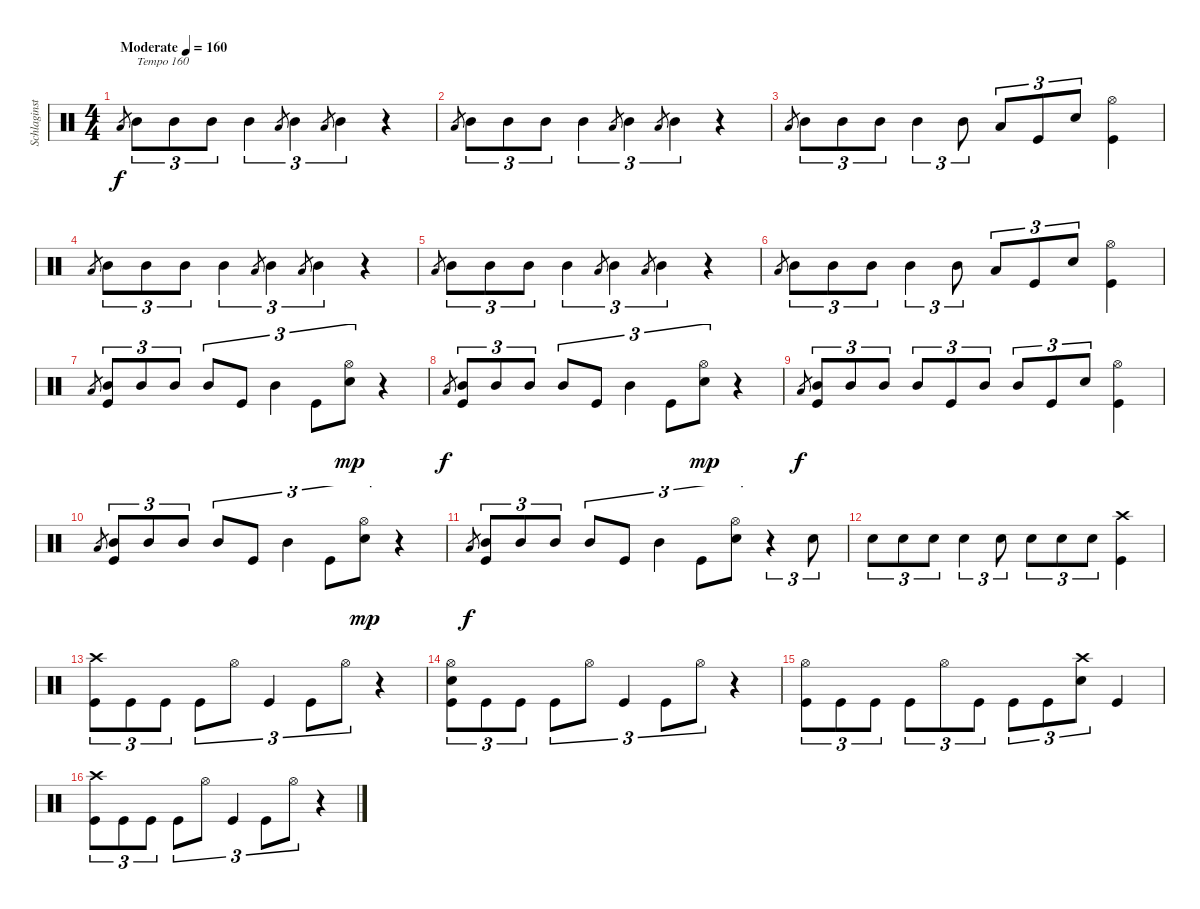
\track ("Schlaginstrumente - Auswahl" "Schlaginst") {instrument percussion}
\staff {score}
\articulation defaults
\ts (4 4)
\tempo (160 "Moderate")
\clef neutral
\ks c "Low Tom (hit)".8{gr dy f} "Mid Tom (hit)".8{tu (3 2) txt "Tempo 160"} "Mid Tom (hit)".8{tu (3 2)} "Mid Tom (hit)".8{tu (3 2)} "Mid Tom (hit)".4{tu (3 2)} "Low Tom (hit)".8{gr} "Mid Tom (hit)".4{tu (3 2)} "Low Tom (hit)".8{gr} "Mid Tom (hit)".4{tu (3 2)}
r.4 |
"Low Tom (hit)".8{gr} "Mid Tom (hit)".8{tu (3 2)} "Mid Tom (hit)".8{tu (3 2)} "Mid Tom (hit)".8{tu (3 2)} "Mid Tom (hit)".4{tu (3 2)} "Low Tom (hit)".8{gr} "Mid Tom (hit)".4{tu (3 2)} "Low Tom (hit)".8{gr} "Mid Tom (hit)".4{tu (3 2)} r.4 |
"Low Tom (hit)".8{gr} "Mid Tom (hit)".8{tu (3 2)} "Mid Tom (hit)".8{tu (3 2)} "Mid Tom (hit)".8{tu (3 2)} "Mid Tom (hit)".4{tu (3 2)} "Mid Tom (hit)".8{tu (3 2)} "Low Tom (hit)".8{tu (3 2)} "Kick (hit)".8{tu (3 2)} "Electric Snare (hit)".8{tu (3 2)} ("Hi-Hat (open)" "Kick (hit)").4 |
"Low Tom (hit)".8{gr} "Mid Tom (hit)".8{tu (3 2)} "Mid Tom (hit)".8{tu (3 2)} "Mid Tom (hit)".8{tu (3 2)} "Mid Tom (hit)".4{tu (3 2)} "Low Tom (hit)".8{gr} "Mid Tom (hit)".4{tu (3 2)} "Low Tom (hit)".8{gr} "Mid Tom (hit)".4{tu (3 2)} r.4 |
"Low Tom (hit)".8{gr} "Mid Tom (hit)".8{tu (3 2)} "Mid Tom (hit)".8{tu (3 2)} "Mid Tom (hit)".8{tu (3 2)} "Mid Tom (hit)".4{tu (3 2)} "Low Tom (hit)".8{gr} "Mid Tom (hit)".4{tu (3 2)} "Low Tom (hit)".8{gr} "Mid Tom (hit)".4{tu (3 2)} r.4 |
"Low Tom (hit)".8{gr} "Mid Tom (hit)".8{tu (3 2)} "Mid Tom (hit)".8{tu (3 2)} "Mid Tom (hit)".8{tu (3 2)} "Mid Tom (hit)".4{tu (3 2)} "Mid Tom (hit)".8{tu (3 2)} "Low Tom (hit)".8{tu (3 2)} "Kick (hit)".8{tu (3 2)} "Electric Snare (hit)".8{tu (3 2)} ("Hi-Hat (open)" "Kick (hit)").4 |
"Low Tom (hit)".8{gr} ("Kick (hit)" "Mid Tom (hit)").8{tu (3 2)} "Mid Tom (hit)".8{tu (3 2)} "Mid Tom (hit)".8{tu (3 2)} "Mid Tom (hit)".8{tu (3 2)} "Kick (hit)".8{tu (3 2)} "Mid Tom (hit)".4{tu (3 2)} "Kick (hit)".8{tu (3 2)} ("Hi-Hat (open)" "Electric Snare (hit)").8{tu (3 2) dy mp} r.4 |
"Low Tom (hit)".8{gr dy f} ("Kick (hit)" "Mid Tom (hit)").8{tu (3 2)} "Mid Tom (hit)".8{tu (3 2)} "Mid Tom (hit)".8{tu (3 2)} "Mid Tom (hit)".8{tu (3 2)} "Kick (hit)".8{tu (3 2)} "Mid Tom (hit)".4{tu (3 2)} "Kick (hit)".8{tu (3 2)} ("Hi-Hat (open)" "Electric Snare (hit)").8{tu (3 2) dy mp} r.4 |
"Low Tom (hit)".8{gr dy f} ("Kick (hit)" "Mid Tom (hit)").8{tu (3 2)} "Mid Tom (hit)".8{tu (3 2)} "Mid Tom (hit)".8{tu (3 2)} "Mid Tom (hit)".8{tu (3 2)} "Kick (hit)".8{tu (3 2)} "Mid Tom (hit)".8{tu (3 2)} "Mid Tom (hit)".8{tu (3 2)} "Kick (hit)".8{tu (3 2)} "Electric Snare (hit)".8{tu (3 2)} ("Hi-Hat (open)" "Kick (hit)").4 |
"Low Tom (hit)".8{gr} ("Kick (hit)" "Mid Tom (hit)").8{tu (3 2)} "Mid Tom (hit)".8{tu (3 2)} "Mid Tom (hit)".8{tu (3 2)} "Mid Tom (hit)".8{tu (3 2)} "Kick (hit)".8{tu (3 2)} "Mid Tom (hit)".4{tu (3 2)} "Kick (hit)".8{tu (3 2)} ("Hi-Hat (open)" "Electric Snare (hit)").8{tu (3 2) dy mp} r.4 |
"Low Tom (hit)".8{gr dy f} ("Kick (hit)" "Mid Tom (hit)").8{tu (3 2)} "Mid Tom (hit)".8{tu (3 2)} "Mid Tom (hit)".8{tu (3 2)} "Mid Tom (hit)".8{tu (3 2)} "Kick (hit)".8{tu (3 2)} "Mid Tom (hit)".4{tu (3 2)} "Kick (hit)".8{tu (3 2)} ("Hi-Hat (open)" "Electric Snare (hit)").8{tu (3 2)} r.4{tu (3 2)} "Electric Snare (hit)".8{tu (3 2)} |
"Electric Snare (hit)".8{tu (3 2)} "Electric Snare (hit)".8{tu (3 2)} "Electric Snare (hit)".8{tu (3 2)} "Electric Snare (hit)".4{tu (3 2)} "Electric Snare (hit)".8{tu (3 2)} "Electric Snare (hit)".8{tu (3 2)} "Electric Snare (hit)".8{tu (3 2)} "Electric Snare (hit)".8{tu (3 2)} ("Crash high (hit)" "Kick (hit)").4 |
("Crash high (hit)" "Kick (hit)").8{tu (3 2)} "Kick (hit)".8{tu (3 2)} "Kick (hit)".8{tu (3 2)} "Kick (hit)".8{tu (3 2)} "Hi-Hat (open)".8{tu (3 2)} "Kick (hit)".4{tu (3 2)} "Kick (hit)".8{tu (3 2)} "Hi-Hat (open)".8{tu (3 2)} r.4 |
("Electric Snare (hit)" "Hi-Hat (open)" "Kick (hit)").8{tu (3 2)} "Kick (hit)".8{tu (3 2)} "Kick (hit)".8{tu (3 2)} "Kick (hit)".8{tu (3 2)} "Hi-Hat (open)".8{tu (3 2)} "Kick (hit)".4{tu (3 2)} "Kick (hit)".8{tu (3 2)} "Hi-Hat (open)".8{tu (3 2)} r.4 |
("Hi-Hat (open)" "Kick (hit)").8{tu (3 2)} "Kick (hit)".8{tu (3 2)} "Kick (hit)".8{tu (3 2)} "Kick (hit)".8{tu (3 2)} "Hi-Hat (open)".8{tu (3 2)} "Kick (hit)".8{tu (3 2)} "Kick (hit)".8{tu (3 2)} "Kick (hit)".8{tu (3 2)} ("Electric Snare (hit)" "Crash high (hit)").8{tu (3 2)} "Kick (hit)".4 |
("Crash high (hit)" "Kick (hit)").8{tu (3 2)} "Kick (hit)".8{tu (3 2)} "Kick (hit)".8{tu (3 2)} "Kick (hit)".8{tu (3 2)} "Hi-Hat (open)".8{tu (3 2)} "Kick (hit)".4{tu (3 2)} "Kick (hit)".8{tu (3 2)} "Hi-Hat (open)".8{tu (3 2)} r.4
